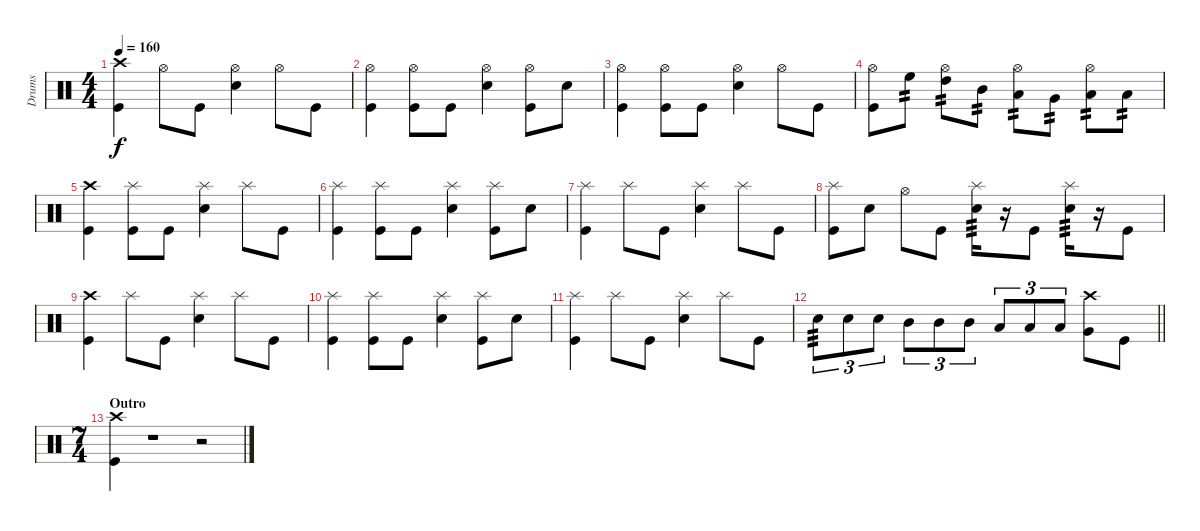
\track ("Drums" "Drums") {instrument percussion}
\staff {score}
\articulation defaults
\ts (4 4)
\tempo 160
\clef neutral
\ks c
("Crash high (hit)" "Kick (hit)").4{dy f} "Hi-Hat (open)".8 "Kick (hit)".8 ("Hi-Hat (open)" "Snare (hit) 2").4 "Hi-Hat (open)".8 "Kick (hit)".8 |
("Hi-Hat (open)" "Kick (hit)").4 ("Hi-Hat (open)" "Kick (hit)").8 "Kick (hit)".8 ("Hi-Hat (open)" "Snare (hit) 2").4 ("Hi-Hat (open)" "Kick (hit)").8 "Snare (hit) 2".8 |
("Hi-Hat (open)" "Kick (hit)").4 ("Hi-Hat (open)" "Kick (hit)").8 "Kick (hit)".8 ("Hi-Hat (open)" "Snare (hit) 2").4 "Hi-Hat (open)".8 "Kick (hit)".8 |
("Hi-Hat (open)" "Kick (hit)").8 "High Floor Tom (hit)".8{tp 2} ("Hi-Hat (open)" "High Tom (hit)").8{tp 2} "Mid Tom (hit)".8{tp 2} ("Hi-Hat (open)" "Low Tom (hit)").8{tp 2} "Very Low Tom (hit)".8{tp 2} ("Hi-Hat (open)" "Low Floor Tom (hit)").8{tp 2} "Low Floor Tom (hit)".8{tp 2} |
("Crash high (hit)" "Kick (hit)").4 ("Splash (hit)" "Kick (hit)").8 "Kick (hit)".8 ("Splash (hit)" "Snare (hit) 2").4 "Splash (hit)".8 "Kick (hit)".8 |
("Splash (hit)" "Kick (hit)").4 ("Splash (hit)" "Kick (hit)").8 "Kick (hit)".8 ("Splash (hit)" "Snare (hit) 2").4 ("Splash (hit)" "Kick (hit)").8 "Snare (hit) 2".8 |
("Splash (hit)" "Kick (hit)").4 "Splash (hit)".8 "Kick (hit)".8 ("Splash (hit)" "Snare (hit) 2").4 "Splash (hit)".8 "Kick (hit)".8 |
("Splash (hit)" "Kick (hit)").8 "Snare (hit) 2".8 "Hi-Hat (open)".8 "Kick (hit)".8 ("Splash (hit)" "Snare (hit) 2").16{tp 3} r.16 "Kick (hit)".8 ("Splash (hit)" "Snare (hit) 2").16{tp 3} r.16 "Kick (hit)".8 |
("Crash high (hit)" "Kick (hit)").4 "Splash (hit)".8 "Kick (hit)".8 ("Splash (hit)" "Snare (hit) 2").4 "Splash (hit)".8 "Kick (hit)".8 |
("Splash (hit)" "Kick (hit)").4 ("Splash (hit)" "Kick (hit)").8 "Kick (hit)".8 ("Splash (hit)" "Snare (hit) 2").4 ("Splash (hit)" "Kick (hit)").8 "Snare (hit) 2".8 |
("Splash (hit)" "Kick (hit)").4 "Splash (hit)".8 "Kick (hit)".8 ("Splash (hit)" "Snare (hit) 2").4 "Splash (hit)".8 "Kick (hit)".8 |
\barLineRight lightlight "Snare (hit) 2".8{tu (3 2) tp 3} "Snare (hit) 2".8{tu (3 2)} "Snare (hit) 2".8{tu (3 2)} "Mid Tom (hit)".8{tu (3 2)} "Mid Tom (hit)".8{tu (3 2)} "Mid Tom (hit)".8{tu (3 2)} "Low Tom (hit)".8{tu (3 2)} "Low Tom (hit)".8{tu (3 2)} "Low Tom (hit)".8{tu (3 2)}
("Crash high (hit)" "Very Low Tom (hit)").8 "Kick (hit)".8 |
\ts (7 4)
\section ("" "Outro")
("Crash high (hit)" "Kick (hit)").4 r.1 r.2
